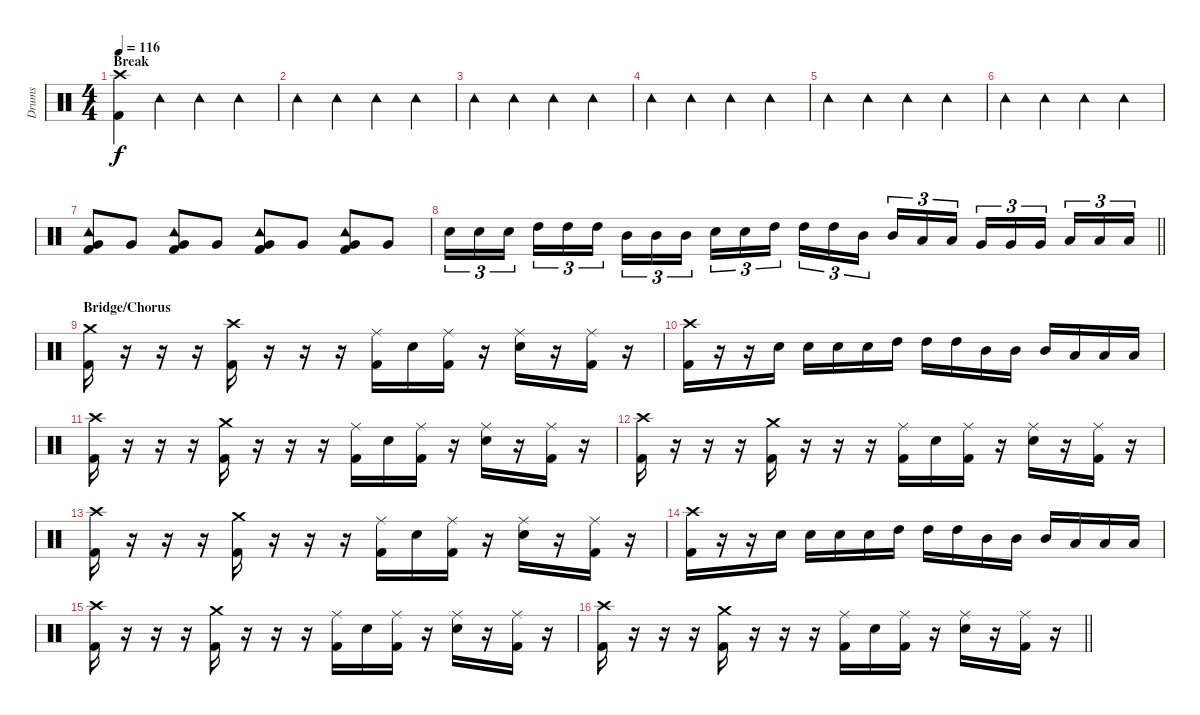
\track ("Drums" "Drums") {instrument percussion}
\staff {score}
\articulation defaults
\ts (4 4)
\section ("" "Break")
\tempo 116
\clef neutral
\ks c
("Crash high (hit)" "Kick (hit) 2").4{dy f} "Tambourine (hit)".4 "Tambourine (hit)".4 "Tambourine (hit)".4 |
"Tambourine (hit)".4 "Tambourine (hit)".4 "Tambourine (hit)".4 "Tambourine (hit)".4 |
"Tambourine (hit)".4 "Tambourine (hit)".4 "Tambourine (hit)".4 "Tambourine (hit)".4 |
"Tambourine (hit)".4 "Tambourine (hit)".4 "Tambourine (hit)".4 "Tambourine (hit)".4 |
"Tambourine (hit)".4 "Tambourine (hit)".4 "Tambourine (hit)".4 "Tambourine (hit)".4 |
"Tambourine (hit)".4 "Tambourine (hit)".4 "Tambourine (hit)".4 "Tambourine (hit)".4 |
("Tambourine (hit)" "Very Low Tom (hit)" "Kick (hit) 2").8 "Very Low Tom (hit)".8 ("Tambourine (hit)" "Very Low Tom (hit)" "Kick (hit) 2").8 "Very Low Tom (hit)".8 ("Tambourine (hit)" "Very Low Tom (hit)" "Kick (hit) 2").8 "Very Low Tom (hit)".8 ("Tambourine (hit)" "Very Low Tom (hit)" "Kick (hit) 2").8 "Very Low Tom (hit)".8 |
\barLineRight lightlight "Snare (hit) 2".16{tu (3 2)} "Snare (hit) 2".16{tu (3 2)} "Snare (hit) 2".16{tu (3 2) beam splitsecondary} "High Tom (hit)".16{tu (3 2)} "High Tom (hit)".16{tu (3 2)} "High Tom (hit)".16{tu (3 2)} "Mid Tom (hit)".16{tu (3 2)} "Mid Tom (hit)".16{tu (3 2)} "Mid Tom (hit)".16{tu (3 2) beam splitsecondary} "Snare (hit) 2".16{tu (3 2)} "Snare (hit) 2".16{tu (3 2)} "High Tom (hit)".16{tu (3 2)} "High Tom (hit)".16{tu (3 2)} "High Tom (hit)".16{tu (3 2)} "Mid Tom (hit)".16{tu (3 2) beam splitsecondary} "Mid Tom (hit)".16{tu (3 2)} "Low Tom (hit)".16{tu (3 2)} "Low Tom (hit)".16{tu (3 2)} "Very Low Tom (hit)".16{tu (3 2)} "Very Low Tom (hit)".16{tu (3 2)} "Very Low Tom (hit)".16{tu (3 2) beam splitsecondary} "Low Floor Tom (hit)".16{tu (3 2)} "Low Floor Tom (hit)".16{tu (3 2)} "Low Floor Tom (hit)".16{tu (3 2)}
|
\section ("" "Bridge/Chorus")
("Crash medium (hit)" "Kick (hit) 2").16 r.16 r.16 r.16 ("Crash high (hit)" "Kick (hit) 2").16 r.16 r.16 r.16 ("Ride (middle)" "Kick (hit) 2").16 "Snare (hit) 2".16 ("Ride (middle)" "Kick (hit) 2").16 r.16 ("Ride (middle)" "Snare (hit) 2").16 r.16 ("Ride (middle)" "Kick (hit) 2").16 r.16 |
("Crash high (hit)" "Kick (hit) 2").16 r.16 r.16 "Snare (hit) 2".16 "Snare (hit) 2".16 "Snare (hit) 2".16 "Snare (hit) 2".16 "High Tom (hit)".16 "High Tom (hit)".16 "High Tom (hit)".16 "Mid Tom (hit)".16 "Mid Tom (hit)".16 "Mid Tom (hit)".16 "Low Tom (hit)".16 "Low Tom (hit)".16 "Low Tom (hit)".16 |
("Crash high (hit)" "Kick (hit) 2").16 r.16 r.16 r.16 ("Crash medium (hit)" "Kick (hit) 2").16 r.16 r.16 r.16 ("Ride (middle)" "Kick (hit) 2").16 "Snare (hit) 2".16 ("Ride (middle)" "Kick (hit) 2").16 r.16 ("Ride (middle)" "Snare (hit) 2").16 r.16 ("Ride (middle)" "Kick (hit) 2").16 r.16 |
("Crash high (hit)" "Kick (hit) 2").16 r.16 r.16 r.16 ("Crash medium (hit)" "Kick (hit) 2").16 r.16 r.16 r.16 ("Ride (middle)" "Kick (hit) 2").16 "Snare (hit) 2".16 ("Ride (middle)" "Kick (hit) 2").16 r.16 ("Ride (middle)" "Snare (hit) 2").16 r.16 ("Ride (middle)" "Kick (hit) 2").16 r.16 |
("Crash high (hit)" "Kick (hit) 2").16 r.16 r.16 r.16 ("Crash medium (hit)" "Kick (hit) 2").16 r.16 r.16 r.16 ("Ride (middle)" "Kick (hit) 2").16 "Snare (hit) 2".16 ("Ride (middle)" "Kick (hit) 2").16 r.16 ("Ride (middle)" "Snare (hit) 2").16 r.16 ("Ride (middle)" "Kick (hit) 2").16 r.16 |
("Crash high (hit)" "Kick (hit) 2").16 r.16 r.16 "Snare (hit) 2".16 "Snare (hit) 2".16 "Snare (hit) 2".16 "Snare (hit) 2".16 "High Tom (hit)".16 "High Tom (hit)".16 "High Tom (hit)".16 "Mid Tom (hit)".16 "Mid Tom (hit)".16 "Mid Tom (hit)".16 "Low Tom (hit)".16 "Low Tom (hit)".16 "Low Tom (hit)".16 |
("Crash high (hit)" "Kick (hit) 2").16 r.16 r.16 r.16 ("Crash medium (hit)" "Kick (hit) 2").16 r.16 r.16 r.16 ("Ride (middle)" "Kick (hit) 2").16 "Snare (hit) 2".16 ("Ride (middle)" "Kick (hit) 2").16 r.16 ("Ride (middle)" "Snare (hit) 2").16 r.16 ("Ride (middle)" "Kick (hit) 2").16 r.16 |
\barLineRight lightlight
("Crash high (hit)" "Kick (hit) 2").16 r.16 r.16 r.16 ("Crash medium (hit)" "Kick (hit) 2").16 r.16 r.16 r.16 ("Ride (middle)" "Kick (hit) 2").16 "Snare (hit) 2".16 ("Ride (middle)" "Kick (hit) 2").16 r.16 ("Ride (middle)" "Snare (hit) 2").16 r.16 ("Ride (middle)" "Kick (hit) 2").16 r.16
